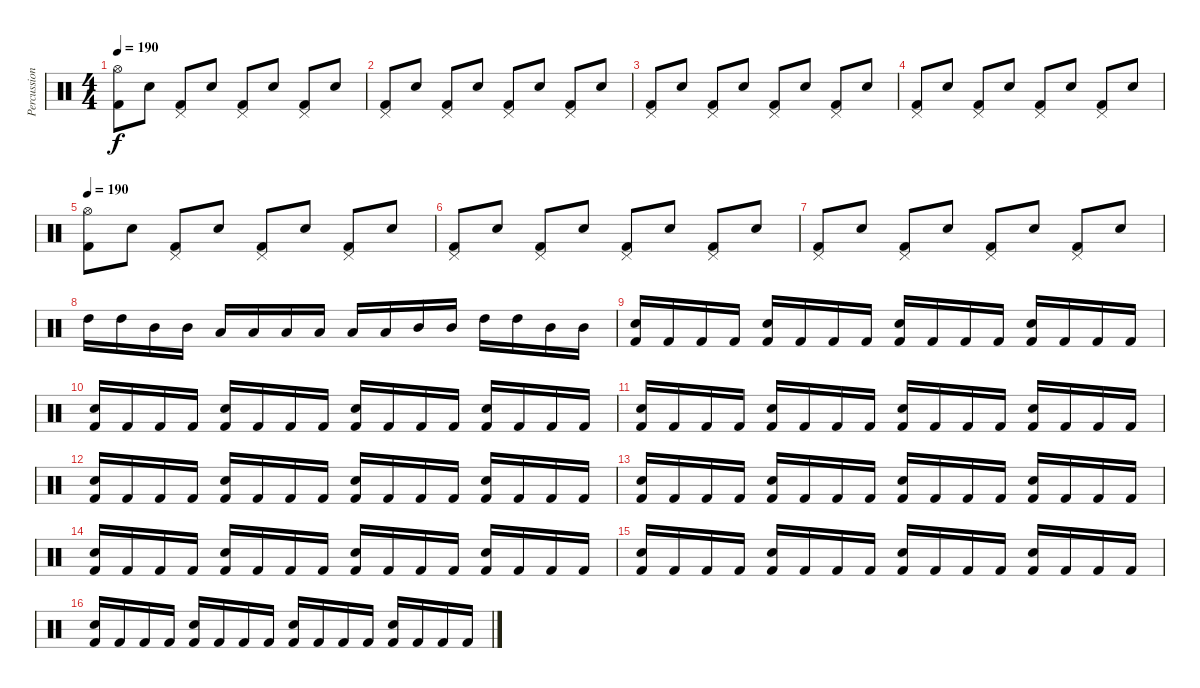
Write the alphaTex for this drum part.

\track ("Percussion" "Percussion") {instrument percussion}
\staff {score}
\articulation defaults
\ts (4 4)
\tempo 190
\clef neutral
\ks c
("Kick (hit) 2" "Hi-Hat (open)").8{dy f} "Snare (hit) 2".8 ("Kick (hit) 2" "Pedal Hi-Hat (hit)").8 "Snare (hit) 2".8 ("Kick (hit) 2" "Pedal Hi-Hat (hit)").8 "Snare (hit) 2".8 ("Kick (hit) 2" "Pedal Hi-Hat (hit)").8 "Snare (hit) 2".8 |
("Kick (hit) 2" "Pedal Hi-Hat (hit)").8 "Snare (hit) 2".8 ("Kick (hit) 2" "Pedal Hi-Hat (hit)").8 "Snare (hit) 2".8 ("Kick (hit) 2" "Pedal Hi-Hat (hit)").8 "Snare (hit) 2".8 ("Kick (hit) 2" "Pedal Hi-Hat (hit)").8 "Snare (hit) 2".8 |
("Kick (hit) 2" "Pedal Hi-Hat (hit)").8 "Snare (hit) 2".8 ("Kick (hit) 2" "Pedal Hi-Hat (hit)").8 "Snare (hit) 2".8 ("Kick (hit) 2" "Pedal Hi-Hat (hit)").8 "Snare (hit) 2".8 ("Kick (hit) 2" "Pedal Hi-Hat (hit)").8 "Snare (hit) 2".8 |
("Kick (hit) 2" "Pedal Hi-Hat (hit)").8 "Snare (hit) 2".8 ("Kick (hit) 2" "Pedal Hi-Hat (hit)").8 "Snare (hit) 2".8 ("Kick (hit) 2" "Pedal Hi-Hat (hit)").8 "Snare (hit) 2".8 ("Kick (hit) 2" "Pedal Hi-Hat (hit)").8 "Snare (hit) 2".8 |
\tempo 190
("Kick (hit) 2" "Hi-Hat (open)").8 "Snare (hit) 2".8 ("Kick (hit) 2" "Pedal Hi-Hat (hit)").8 "Snare (hit) 2".8 ("Kick (hit) 2" "Pedal Hi-Hat (hit)").8 "Snare (hit) 2".8 ("Kick (hit) 2" "Pedal Hi-Hat (hit)").8 "Snare (hit) 2".8 |
("Kick (hit) 2" "Pedal Hi-Hat (hit)").8 "Snare (hit) 2".8 ("Kick (hit) 2" "Pedal Hi-Hat (hit)").8 "Snare (hit) 2".8 ("Kick (hit) 2" "Pedal Hi-Hat (hit)").8 "Snare (hit) 2".8 ("Kick (hit) 2" "Pedal Hi-Hat (hit)").8 "Snare (hit) 2".8 |
("Kick (hit) 2" "Pedal Hi-Hat (hit)").8 "Snare (hit) 2".8 ("Kick (hit) 2" "Pedal Hi-Hat (hit)").8 "Snare (hit) 2".8 ("Kick (hit) 2" "Pedal Hi-Hat (hit)").8 "Snare (hit) 2".8 ("Kick (hit) 2" "Pedal Hi-Hat (hit)").8 "Snare (hit) 2".8 |
"High Tom (hit)".16 "High Tom (hit)".16 "Mid Tom (hit)".16 "Mid Tom (hit)".16 "Low Tom (hit)".16 "Low Tom (hit)".16 "Low Floor Tom (hit)".16 "Low Floor Tom (hit)".16 "Low Tom (hit)".16 "Low Tom (hit)".16 "Mid Tom (hit)".16 "Mid Tom (hit)".16 "High Tom (hit)".16 "High Tom (hit)".16 "Mid Tom (hit)".16 "Mid Tom (hit)".16 |
("Kick (hit) 2" "Snare (hit) 2").16 "Kick (hit) 2".16 "Kick (hit) 2".16 "Kick (hit) 2".16 ("Kick (hit) 2" "Snare (hit) 2").16 "Kick (hit) 2".16 "Kick (hit) 2".16 "Kick (hit) 2".16 ("Kick (hit) 2" "Snare (hit) 2").16 "Kick (hit) 2".16 "Kick (hit) 2".16 "Kick (hit) 2".16 ("Kick (hit) 2" "Snare (hit) 2").16 "Kick (hit) 2".16 "Kick (hit) 2".16 "Kick (hit) 2".16 |
("Kick (hit) 2" "Snare (hit) 2").16 "Kick (hit) 2".16 "Kick (hit) 2".16 "Kick (hit) 2".16 ("Kick (hit) 2" "Snare (hit) 2").16 "Kick (hit) 2".16 "Kick (hit) 2".16 "Kick (hit) 2".16 ("Kick (hit) 2" "Snare (hit) 2").16 "Kick (hit) 2".16 "Kick (hit) 2".16 "Kick (hit) 2".16 ("Kick (hit) 2" "Snare (hit) 2").16 "Kick (hit) 2".16 "Kick (hit) 2".16 "Kick (hit) 2".16 |
("Kick (hit) 2" "Snare (hit) 2").16 "Kick (hit) 2".16 "Kick (hit) 2".16 "Kick (hit) 2".16 ("Kick (hit) 2" "Snare (hit) 2").16 "Kick (hit) 2".16 "Kick (hit) 2".16 "Kick (hit) 2".16 ("Kick (hit) 2" "Snare (hit) 2").16 "Kick (hit) 2".16 "Kick (hit) 2".16 "Kick (hit) 2".16 ("Kick (hit) 2" "Snare (hit) 2").16 "Kick (hit) 2".16 "Kick (hit) 2".16 "Kick (hit) 2".16 |
("Kick (hit) 2" "Snare (hit) 2").16 "Kick (hit) 2".16 "Kick (hit) 2".16 "Kick (hit) 2".16 ("Kick (hit) 2" "Snare (hit) 2").16 "Kick (hit) 2".16 "Kick (hit) 2".16 "Kick (hit) 2".16 ("Kick (hit) 2" "Snare (hit) 2").16 "Kick (hit) 2".16 "Kick (hit) 2".16 "Kick (hit) 2".16 ("Kick (hit) 2" "Snare (hit) 2").16 "Kick (hit) 2".16 "Kick (hit) 2".16 "Kick (hit) 2".16 |
("Kick (hit) 2" "Snare (hit) 2").16 "Kick (hit) 2".16 "Kick (hit) 2".16 "Kick (hit) 2".16 ("Kick (hit) 2" "Snare (hit) 2").16 "Kick (hit) 2".16 "Kick (hit) 2".16 "Kick (hit) 2".16 ("Kick (hit) 2" "Snare (hit) 2").16 "Kick (hit) 2".16 "Kick (hit) 2".16 "Kick (hit) 2".16 ("Kick (hit) 2" "Snare (hit) 2").16 "Kick (hit) 2".16 "Kick (hit) 2".16 "Kick (hit) 2".16 |
("Kick (hit) 2" "Snare (hit) 2").16 "Kick (hit) 2".16 "Kick (hit) 2".16 "Kick (hit) 2".16 ("Kick (hit) 2" "Snare (hit) 2").16 "Kick (hit) 2".16 "Kick (hit) 2".16 "Kick (hit) 2".16 ("Kick (hit) 2" "Snare (hit) 2").16 "Kick (hit) 2".16 "Kick (hit) 2".16 "Kick (hit) 2".16 ("Kick (hit) 2" "Snare (hit) 2").16 "Kick (hit) 2".16 "Kick (hit) 2".16 "Kick (hit) 2".16 |
("Kick (hit) 2" "Snare (hit) 2").16 "Kick (hit) 2".16 "Kick (hit) 2".16 "Kick (hit) 2".16 ("Kick (hit) 2" "Snare (hit) 2").16 "Kick (hit) 2".16 "Kick (hit) 2".16 "Kick (hit) 2".16 ("Kick (hit) 2" "Snare (hit) 2").16 "Kick (hit) 2".16 "Kick (hit) 2".16 "Kick (hit) 2".16 ("Kick (hit) 2" "Snare (hit) 2").16 "Kick (hit) 2".16 "Kick (hit) 2".16 "Kick (hit) 2".16 |
("Kick (hit) 2" "Snare (hit) 2").16 "Kick (hit) 2".16 "Kick (hit) 2".16 "Kick (hit) 2".16 ("Kick (hit) 2" "Snare (hit) 2").16 "Kick (hit) 2".16 "Kick (hit) 2".16 "Kick (hit) 2".16 ("Kick (hit) 2" "Snare (hit) 2").16 "Kick (hit) 2".16 "Kick (hit) 2".16 "Kick (hit) 2".16 ("Kick (hit) 2" "Snare (hit) 2").16 "Kick (hit) 2".16 "Kick (hit) 2".16 "Kick (hit) 2".16
